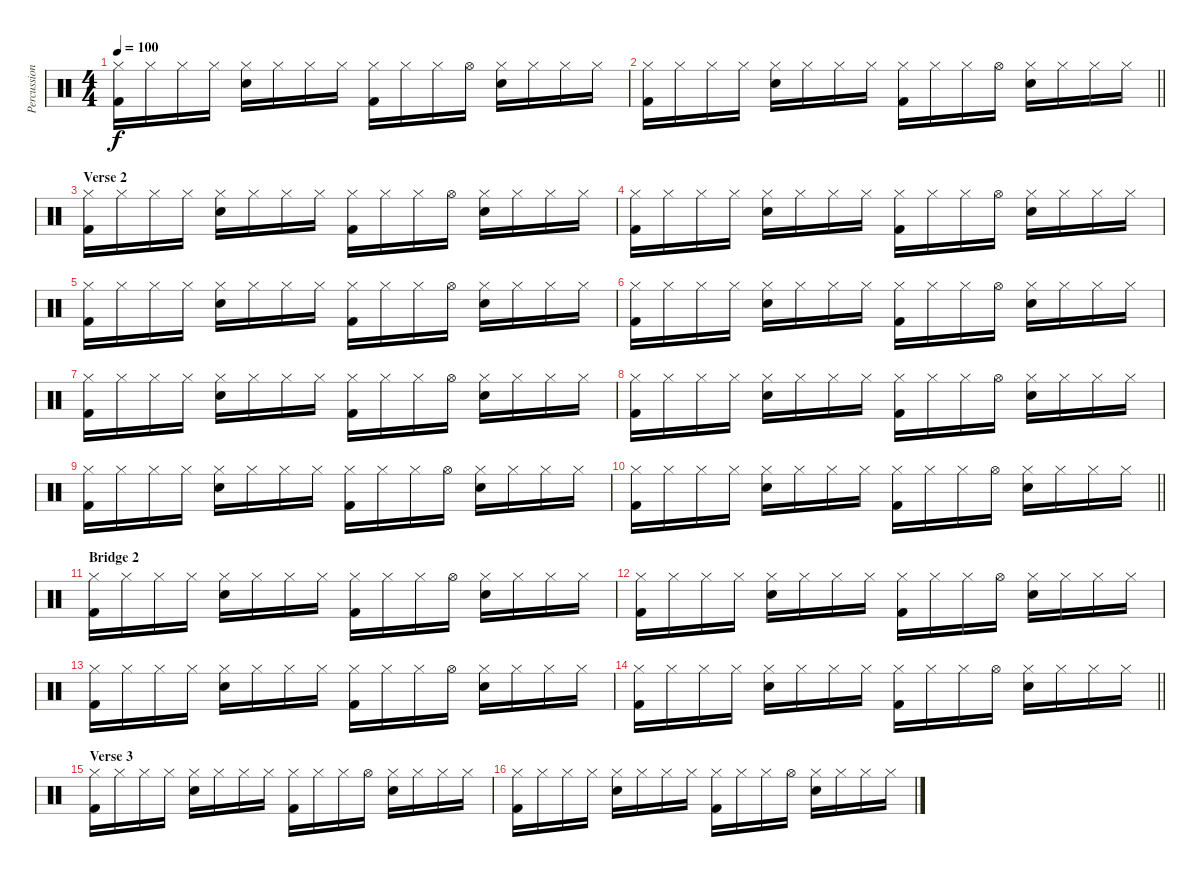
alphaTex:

\track ("Percussion" "Percussion") {instrument percussion}
\staff {score}
\articulation defaults
\ts (4 4)
\tempo 100
\clef neutral
\ks c
("Kick (hit) 2" "Hi-Hat (closed)").16{dy f} "Hi-Hat (closed)".16 "Hi-Hat (closed)".16 "Hi-Hat (closed)".16 ("Electric Snare (hit)" "Hi-Hat (closed)").16 "Hi-Hat (closed)".16 "Hi-Hat (closed)".16 "Hi-Hat (closed)".16 ("Kick (hit) 2" "Hi-Hat (closed)").16 "Hi-Hat (closed)".16 "Hi-Hat (closed)".16 "Hi-Hat (open)".16 ("Hi-Hat (closed)" "Electric Snare (hit)").16 "Hi-Hat (closed)".16 "Hi-Hat (closed)".16 "Hi-Hat (closed)".16 |
\barLineRight lightlight
("Kick (hit) 2" "Hi-Hat (closed)").16 "Hi-Hat (closed)".16 "Hi-Hat (closed)".16 "Hi-Hat (closed)".16 ("Electric Snare (hit)" "Hi-Hat (closed)").16 "Hi-Hat (closed)".16 "Hi-Hat (closed)".16 "Hi-Hat (closed)".16 ("Kick (hit) 2" "Hi-Hat (closed)").16 "Hi-Hat (closed)".16 "Hi-Hat (closed)".16 "Hi-Hat (open)".16 ("Hi-Hat (closed)" "Electric Snare (hit)").16 "Hi-Hat (closed)".16 "Hi-Hat (closed)".16 "Hi-Hat (closed)".16 |
\section ("" "Verse 2")
("Kick (hit) 2" "Hi-Hat (closed)").16 "Hi-Hat (closed)".16 "Hi-Hat (closed)".16 "Hi-Hat (closed)".16 ("Electric Snare (hit)" "Hi-Hat (closed)").16 "Hi-Hat (closed)".16 "Hi-Hat (closed)".16 "Hi-Hat (closed)".16 ("Kick (hit) 2" "Hi-Hat (closed)").16 "Hi-Hat (closed)".16 "Hi-Hat (closed)".16 "Hi-Hat (open)".16 ("Hi-Hat (closed)" "Electric Snare (hit)").16 "Hi-Hat (closed)".16 "Hi-Hat (closed)".16 "Hi-Hat (closed)".16 |
("Kick (hit) 2" "Hi-Hat (closed)").16 "Hi-Hat (closed)".16 "Hi-Hat (closed)".16 "Hi-Hat (closed)".16 ("Electric Snare (hit)" "Hi-Hat (closed)").16 "Hi-Hat (closed)".16 "Hi-Hat (closed)".16 "Hi-Hat (closed)".16 ("Kick (hit) 2" "Hi-Hat (closed)").16 "Hi-Hat (closed)".16 "Hi-Hat (closed)".16 "Hi-Hat (open)".16 ("Hi-Hat (closed)" "Electric Snare (hit)").16 "Hi-Hat (closed)".16 "Hi-Hat (closed)".16 "Hi-Hat (closed)".16 |
("Kick (hit) 2" "Hi-Hat (closed)").16 "Hi-Hat (closed)".16 "Hi-Hat (closed)".16 "Hi-Hat (closed)".16 ("Electric Snare (hit)" "Hi-Hat (closed)").16 "Hi-Hat (closed)".16 "Hi-Hat (closed)".16 "Hi-Hat (closed)".16 ("Kick (hit) 2" "Hi-Hat (closed)").16 "Hi-Hat (closed)".16 "Hi-Hat (closed)".16 "Hi-Hat (open)".16 ("Hi-Hat (closed)" "Electric Snare (hit)").16 "Hi-Hat (closed)".16 "Hi-Hat (closed)".16 "Hi-Hat (closed)".16 |
("Kick (hit) 2" "Hi-Hat (closed)").16 "Hi-Hat (closed)".16 "Hi-Hat (closed)".16 "Hi-Hat (closed)".16 ("Electric Snare (hit)" "Hi-Hat (closed)").16 "Hi-Hat (closed)".16 "Hi-Hat (closed)".16 "Hi-Hat (closed)".16 ("Kick (hit) 2" "Hi-Hat (closed)").16 "Hi-Hat (closed)".16 "Hi-Hat (closed)".16 "Hi-Hat (open)".16 ("Hi-Hat (closed)" "Electric Snare (hit)").16 "Hi-Hat (closed)".16 "Hi-Hat (closed)".16 "Hi-Hat (closed)".16 |
("Kick (hit) 2" "Hi-Hat (closed)").16 "Hi-Hat (closed)".16 "Hi-Hat (closed)".16 "Hi-Hat (closed)".16 ("Electric Snare (hit)" "Hi-Hat (closed)").16 "Hi-Hat (closed)".16 "Hi-Hat (closed)".16 "Hi-Hat (closed)".16 ("Kick (hit) 2" "Hi-Hat (closed)").16 "Hi-Hat (closed)".16 "Hi-Hat (closed)".16 "Hi-Hat (open)".16 ("Hi-Hat (closed)" "Electric Snare (hit)").16 "Hi-Hat (closed)".16 "Hi-Hat (closed)".16 "Hi-Hat (closed)".16 |
("Kick (hit) 2" "Hi-Hat (closed)").16 "Hi-Hat (closed)".16 "Hi-Hat (closed)".16 "Hi-Hat (closed)".16 ("Electric Snare (hit)" "Hi-Hat (closed)").16 "Hi-Hat (closed)".16 "Hi-Hat (closed)".16 "Hi-Hat (closed)".16 ("Kick (hit) 2" "Hi-Hat (closed)").16 "Hi-Hat (closed)".16 "Hi-Hat (closed)".16 "Hi-Hat (open)".16 ("Hi-Hat (closed)" "Electric Snare (hit)").16 "Hi-Hat (closed)".16 "Hi-Hat (closed)".16 "Hi-Hat (closed)".16 |
("Kick (hit) 2" "Hi-Hat (closed)").16 "Hi-Hat (closed)".16 "Hi-Hat (closed)".16 "Hi-Hat (closed)".16 ("Electric Snare (hit)" "Hi-Hat (closed)").16 "Hi-Hat (closed)".16 "Hi-Hat (closed)".16 "Hi-Hat (closed)".16 ("Kick (hit) 2" "Hi-Hat (closed)").16 "Hi-Hat (closed)".16 "Hi-Hat (closed)".16 "Hi-Hat (open)".16 ("Hi-Hat (closed)" "Electric Snare (hit)").16 "Hi-Hat (closed)".16 "Hi-Hat (closed)".16 "Hi-Hat (closed)".16 |
\barLineRight lightlight
("Kick (hit) 2" "Hi-Hat (closed)").16 "Hi-Hat (closed)".16 "Hi-Hat (closed)".16 "Hi-Hat (closed)".16 ("Electric Snare (hit)" "Hi-Hat (closed)").16 "Hi-Hat (closed)".16 "Hi-Hat (closed)".16 "Hi-Hat (closed)".16 ("Kick (hit) 2" "Hi-Hat (closed)").16 "Hi-Hat (closed)".16 "Hi-Hat (closed)".16 "Hi-Hat (open)".16 ("Hi-Hat (closed)" "Electric Snare (hit)").16 "Hi-Hat (closed)".16 "Hi-Hat (closed)".16 "Hi-Hat (closed)".16 |
\section ("" "Bridge 2")
("Kick (hit) 2" "Hi-Hat (closed)").16 "Hi-Hat (closed)".16 "Hi-Hat (closed)".16 "Hi-Hat (closed)".16 ("Electric Snare (hit)" "Hi-Hat (closed)").16 "Hi-Hat (closed)".16 "Hi-Hat (closed)".16 "Hi-Hat (closed)".16 ("Kick (hit) 2" "Hi-Hat (closed)").16 "Hi-Hat (closed)".16 "Hi-Hat (closed)".16 "Hi-Hat (open)".16 ("Hi-Hat (closed)" "Electric Snare (hit)").16 "Hi-Hat (closed)".16 "Hi-Hat (closed)".16 "Hi-Hat (closed)".16 |
("Kick (hit) 2" "Hi-Hat (closed)").16 "Hi-Hat (closed)".16 "Hi-Hat (closed)".16 "Hi-Hat (closed)".16 ("Electric Snare (hit)" "Hi-Hat (closed)").16 "Hi-Hat (closed)".16 "Hi-Hat (closed)".16 "Hi-Hat (closed)".16 ("Kick (hit) 2" "Hi-Hat (closed)").16 "Hi-Hat (closed)".16 "Hi-Hat (closed)".16 "Hi-Hat (open)".16 ("Hi-Hat (closed)" "Electric Snare (hit)").16 "Hi-Hat (closed)".16 "Hi-Hat (closed)".16 "Hi-Hat (closed)".16 |
("Kick (hit) 2" "Hi-Hat (closed)").16 "Hi-Hat (closed)".16 "Hi-Hat (closed)".16 "Hi-Hat (closed)".16 ("Electric Snare (hit)" "Hi-Hat (closed)").16 "Hi-Hat (closed)".16 "Hi-Hat (closed)".16 "Hi-Hat (closed)".16 ("Kick (hit) 2" "Hi-Hat (closed)").16 "Hi-Hat (closed)".16 "Hi-Hat (closed)".16 "Hi-Hat (open)".16 ("Hi-Hat (closed)" "Electric Snare (hit)").16 "Hi-Hat (closed)".16 "Hi-Hat (closed)".16 "Hi-Hat (closed)".16 |
\barLineRight lightlight
("Kick (hit) 2" "Hi-Hat (closed)").16 "Hi-Hat (closed)".16 "Hi-Hat (closed)".16 "Hi-Hat (closed)".16 ("Electric Snare (hit)" "Hi-Hat (closed)").16 "Hi-Hat (closed)".16 "Hi-Hat (closed)".16 "Hi-Hat (closed)".16 ("Kick (hit) 2" "Hi-Hat (closed)").16 "Hi-Hat (closed)".16 "Hi-Hat (closed)".16 "Hi-Hat (open)".16 ("Hi-Hat (closed)" "Electric Snare (hit)").16 "Hi-Hat (closed)".16 "Hi-Hat (closed)".16 "Hi-Hat (closed)".16 |
\section ("" "Verse 3")
("Kick (hit) 2" "Hi-Hat (closed)").16 "Hi-Hat (closed)".16 "Hi-Hat (closed)".16 "Hi-Hat (closed)".16 ("Electric Snare (hit)" "Hi-Hat (closed)").16 "Hi-Hat (closed)".16 "Hi-Hat (closed)".16 "Hi-Hat (closed)".16 ("Kick (hit) 2" "Hi-Hat (closed)").16 "Hi-Hat (closed)".16 "Hi-Hat (closed)".16 "Hi-Hat (open)".16 ("Hi-Hat (closed)" "Electric Snare (hit)").16 "Hi-Hat (closed)".16 "Hi-Hat (closed)".16 "Hi-Hat (closed)".16 |
("Kick (hit) 2" "Hi-Hat (closed)").16 "Hi-Hat (closed)".16 "Hi-Hat (closed)".16 "Hi-Hat (closed)".16 ("Electric Snare (hit)" "Hi-Hat (closed)").16 "Hi-Hat (closed)".16 "Hi-Hat (closed)".16 "Hi-Hat (closed)".16 ("Kick (hit) 2" "Hi-Hat (closed)").16 "Hi-Hat (closed)".16 "Hi-Hat (closed)".16 "Hi-Hat (open)".16 ("Hi-Hat (closed)" "Electric Snare (hit)").16 "Hi-Hat (closed)".16 "Hi-Hat (closed)".16 "Hi-Hat (closed)".16
